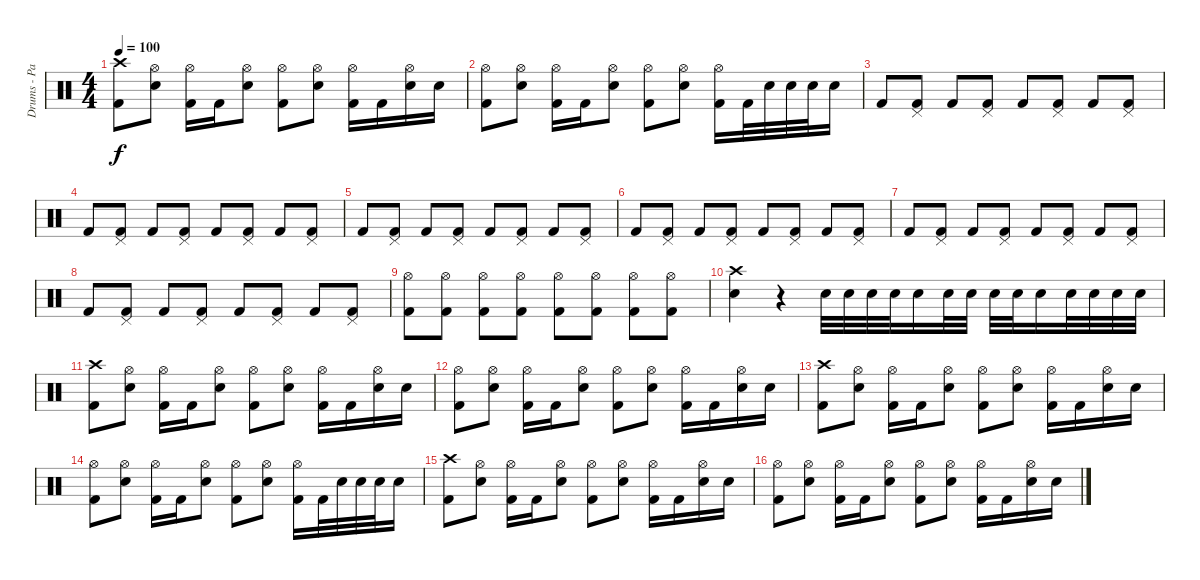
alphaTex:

\track ("Drums - Pat Thetic" "Drums - Pa") {instrument percussion}
\staff {score}
\articulation defaults
\ts (4 4)
\tempo 100
\clef neutral
\ks c
("Crash high (hit)" "Kick (hit) 2").8{dy f} ("Hi-Hat (open)" "Electric Snare (hit)").8 ("Hi-Hat (open)" "Kick (hit) 2").16 "Kick (hit) 2".16 ("Hi-Hat (open)" "Electric Snare (hit)").8 ("Hi-Hat (open)" "Kick (hit) 2").8 ("Hi-Hat (open)" "Electric Snare (hit)").8 ("Hi-Hat (open)" "Kick (hit) 2").16 "Kick (hit) 2".16 ("Hi-Hat (open)" "Electric Snare (hit)").16 "Electric Snare (hit)".16 |
("Hi-Hat (open)" "Kick (hit) 2").8 ("Hi-Hat (open)" "Electric Snare (hit)").8 ("Hi-Hat (open)" "Kick (hit) 2").16 "Kick (hit) 2".16 ("Hi-Hat (open)" "Electric Snare (hit)").8 ("Hi-Hat (open)" "Kick (hit) 2").8 ("Hi-Hat (open)" "Electric Snare (hit)").8 ("Hi-Hat (open)" "Kick (hit) 2").16 "Kick (hit) 2".32 "Electric Snare (hit)".32 "Electric Snare (hit)".32 "Electric Snare (hit)".32 "Electric Snare (hit)".16 |
"Kick (hit) 2".8 ("Pedal Hi-Hat (hit)" "Kick (hit) 2").8 "Kick (hit) 2".8 ("Pedal Hi-Hat (hit)" "Kick (hit) 2").8 "Kick (hit) 2".8 ("Pedal Hi-Hat (hit)" "Kick (hit) 2").8 "Kick (hit) 2".8 ("Pedal Hi-Hat (hit)" "Kick (hit) 2").8 |
"Kick (hit) 2".8 ("Pedal Hi-Hat (hit)" "Kick (hit) 2").8 "Kick (hit) 2".8 ("Pedal Hi-Hat (hit)" "Kick (hit) 2").8 "Kick (hit) 2".8 ("Pedal Hi-Hat (hit)" "Kick (hit) 2").8 "Kick (hit) 2".8 ("Pedal Hi-Hat (hit)" "Kick (hit) 2").8 |
"Kick (hit) 2".8 ("Pedal Hi-Hat (hit)" "Kick (hit) 2").8 "Kick (hit) 2".8 ("Pedal Hi-Hat (hit)" "Kick (hit) 2").8 "Kick (hit) 2".8 ("Pedal Hi-Hat (hit)" "Kick (hit) 2").8 "Kick (hit) 2".8 ("Pedal Hi-Hat (hit)" "Kick (hit) 2").8 |
"Kick (hit) 2".8 ("Pedal Hi-Hat (hit)" "Kick (hit) 2").8 "Kick (hit) 2".8 ("Pedal Hi-Hat (hit)" "Kick (hit) 2").8 "Kick (hit) 2".8 ("Pedal Hi-Hat (hit)" "Kick (hit) 2").8 "Kick (hit) 2".8 ("Pedal Hi-Hat (hit)" "Kick (hit) 2").8 |
"Kick (hit) 2".8 ("Pedal Hi-Hat (hit)" "Kick (hit) 2").8 "Kick (hit) 2".8 ("Pedal Hi-Hat (hit)" "Kick (hit) 2").8 "Kick (hit) 2".8 ("Pedal Hi-Hat (hit)" "Kick (hit) 2").8 "Kick (hit) 2".8 ("Pedal Hi-Hat (hit)" "Kick (hit) 2").8 |
"Kick (hit) 2".8 ("Pedal Hi-Hat (hit)" "Kick (hit) 2").8 "Kick (hit) 2".8 ("Pedal Hi-Hat (hit)" "Kick (hit) 2").8 "Kick (hit) 2".8 ("Pedal Hi-Hat (hit)" "Kick (hit) 2").8 "Kick (hit) 2".8 ("Pedal Hi-Hat (hit)" "Kick (hit) 2").8 |
("Hi-Hat (open)" "Kick (hit) 2").8 ("Hi-Hat (open)" "Kick (hit) 2").8 ("Hi-Hat (open)" "Kick (hit) 2").8 ("Hi-Hat (open)" "Kick (hit) 2").8 ("Hi-Hat (open)" "Kick (hit) 2").8 ("Hi-Hat (open)" "Kick (hit) 2").8 ("Hi-Hat (open)" "Kick (hit) 2").8 ("Hi-Hat (open)" "Kick (hit) 2").8 |
("Crash high (hit)" "Electric Snare (hit)").4 r.4 "Electric Snare (hit)".32 "Electric Snare (hit)".32 "Electric Snare (hit)".32 "Electric Snare (hit)".32 "Electric Snare (hit)".16 "Electric Snare (hit)".32 "Electric Snare (hit)".32 "Electric Snare (hit)".32 "Electric Snare (hit)".32 "Electric Snare (hit)".16 "Electric Snare (hit)".32 "Electric Snare (hit)".32 "Electric Snare (hit)".32 "Electric Snare (hit)".32 |
("Crash high (hit)" "Kick (hit) 2").8 ("Hi-Hat (open)" "Electric Snare (hit)").8 ("Hi-Hat (open)" "Kick (hit) 2").16 "Kick (hit) 2".16 ("Hi-Hat (open)" "Electric Snare (hit)").8 ("Hi-Hat (open)" "Kick (hit) 2").8 ("Hi-Hat (open)" "Electric Snare (hit)").8 ("Hi-Hat (open)" "Kick (hit) 2").16 "Kick (hit) 2".16 ("Hi-Hat (open)" "Electric Snare (hit)").16 "Electric Snare (hit)".16 |
("Hi-Hat (open)" "Kick (hit) 2").8 ("Hi-Hat (open)" "Electric Snare (hit)").8 ("Hi-Hat (open)" "Kick (hit) 2").16 "Kick (hit) 2".16 ("Hi-Hat (open)" "Electric Snare (hit)").8 ("Hi-Hat (open)" "Kick (hit) 2").8 ("Hi-Hat (open)" "Electric Snare (hit)").8 ("Hi-Hat (open)" "Kick (hit) 2").16 "Kick (hit) 2".16 ("Hi-Hat (open)" "Electric Snare (hit)").16 "Electric Snare (hit)".16 |
("Crash high (hit)" "Kick (hit) 2").8 ("Hi-Hat (open)" "Electric Snare (hit)").8 ("Hi-Hat (open)" "Kick (hit) 2").16 "Kick (hit) 2".16 ("Hi-Hat (open)" "Electric Snare (hit)").8 ("Hi-Hat (open)" "Kick (hit) 2").8 ("Hi-Hat (open)" "Electric Snare (hit)").8 ("Hi-Hat (open)" "Kick (hit) 2").16 "Kick (hit) 2".16 ("Hi-Hat (open)" "Electric Snare (hit)").16 "Electric Snare (hit)".16 |
("Hi-Hat (open)" "Kick (hit) 2").8 ("Hi-Hat (open)" "Electric Snare (hit)").8 ("Hi-Hat (open)" "Kick (hit) 2").16 "Kick (hit) 2".16 ("Hi-Hat (open)" "Electric Snare (hit)").8 ("Hi-Hat (open)" "Kick (hit) 2").8 ("Hi-Hat (open)" "Electric Snare (hit)").8 ("Hi-Hat (open)" "Kick (hit) 2").16 "Kick (hit) 2".32 "Electric Snare (hit)".32 "Electric Snare (hit)".32 "Electric Snare (hit)".32 "Electric Snare (hit)".16 |
("Crash high (hit)" "Kick (hit) 2").8 ("Hi-Hat (open)" "Electric Snare (hit)").8 ("Hi-Hat (open)" "Kick (hit) 2").16 "Kick (hit) 2".16 ("Hi-Hat (open)" "Electric Snare (hit)").8 ("Hi-Hat (open)" "Kick (hit) 2").8 ("Hi-Hat (open)" "Electric Snare (hit)").8 ("Hi-Hat (open)" "Kick (hit) 2").16 "Kick (hit) 2".16 ("Hi-Hat (open)" "Electric Snare (hit)").16 "Electric Snare (hit)".16 |
("Hi-Hat (open)" "Kick (hit) 2").8 ("Hi-Hat (open)" "Electric Snare (hit)").8 ("Hi-Hat (open)" "Kick (hit) 2").16 "Kick (hit) 2".16 ("Hi-Hat (open)" "Electric Snare (hit)").8 ("Hi-Hat (open)" "Kick (hit) 2").8 ("Hi-Hat (open)" "Electric Snare (hit)").8 ("Hi-Hat (open)" "Kick (hit) 2").16 "Kick (hit) 2".16 ("Hi-Hat (open)" "Electric Snare (hit)").16 "Electric Snare (hit)".16
